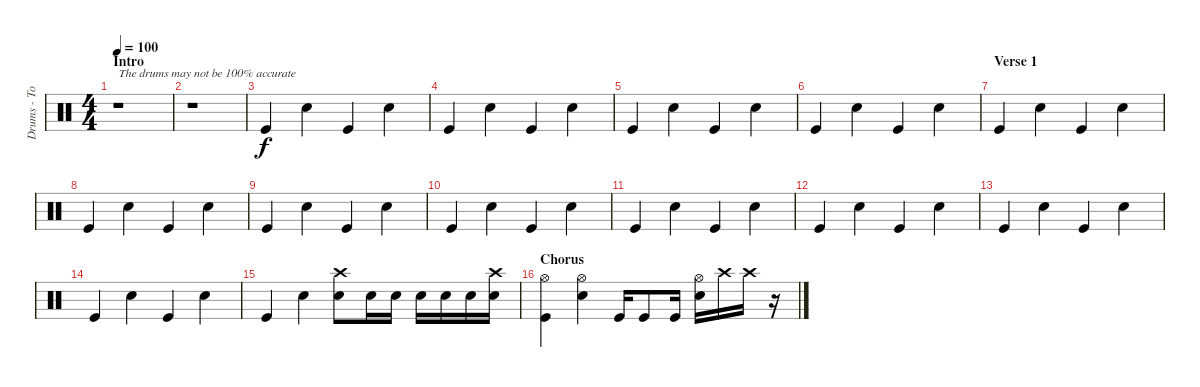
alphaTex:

\track ("Drums - Tommy" "Drums - To") {instrument percussion}
\staff {score}
\articulation defaults
\ts (4 4)
\section ("" "Intro")
\tempo 100
\clef neutral
\ks c
r.1{txt "The drums may not be 100% accurate" dy f} |
r.1 |
"Kick (hit)".4 "Snare (hit) 2".4 "Kick (hit)".4 "Snare (hit) 2".4 |
"Kick (hit)".4 "Snare (hit) 2".4 "Kick (hit)".4 "Snare (hit) 2".4 |
"Kick (hit)".4 "Snare (hit) 2".4 "Kick (hit)".4 "Snare (hit) 2".4 |
"Kick (hit)".4 "Snare (hit) 2".4 "Kick (hit)".4 "Snare (hit) 2".4 |
\section ("" "Verse 1")
"Kick (hit)".4 "Snare (hit) 2".4 "Kick (hit)".4 "Snare (hit) 2".4 |
"Kick (hit)".4 "Snare (hit) 2".4 "Kick (hit)".4 "Snare (hit) 2".4 |
"Kick (hit)".4 "Snare (hit) 2".4 "Kick (hit)".4 "Snare (hit) 2".4 |
"Kick (hit)".4 "Snare (hit) 2".4 "Kick (hit)".4 "Snare (hit) 2".4 |
"Kick (hit)".4 "Snare (hit) 2".4 "Kick (hit)".4 "Snare (hit) 2".4 |
"Kick (hit)".4 "Snare (hit) 2".4 "Kick (hit)".4 "Snare (hit) 2".4 |
"Kick (hit)".4 "Snare (hit) 2".4 "Kick (hit)".4 "Snare (hit) 2".4 |
"Kick (hit)".4 "Snare (hit) 2".4 "Kick (hit)".4 "Snare (hit) 2".4 |
"Kick (hit)".4 "Snare (hit) 2".4 ("Crash high (hit)" "Snare (hit) 2").8 "Snare (hit) 2".16 "Snare (hit) 2".16 "Snare (hit) 2".16 "Snare (hit) 2".16 "Snare (hit) 2".16 ("Crash high (hit)" "Snare (hit) 2").16 |
\section ("" "Chorus")
("Hi-Hat (open)" "Kick (hit)").4 ("Hi-Hat (open)" "Snare (hit) 2").4 "Kick (hit)".16 "Kick (hit)".8 "Kick (hit)".16 ("Hi-Hat (open)" "Snare (hit) 2").16 "Crash high (hit)".16 "Crash high (hit)".16 r.16
